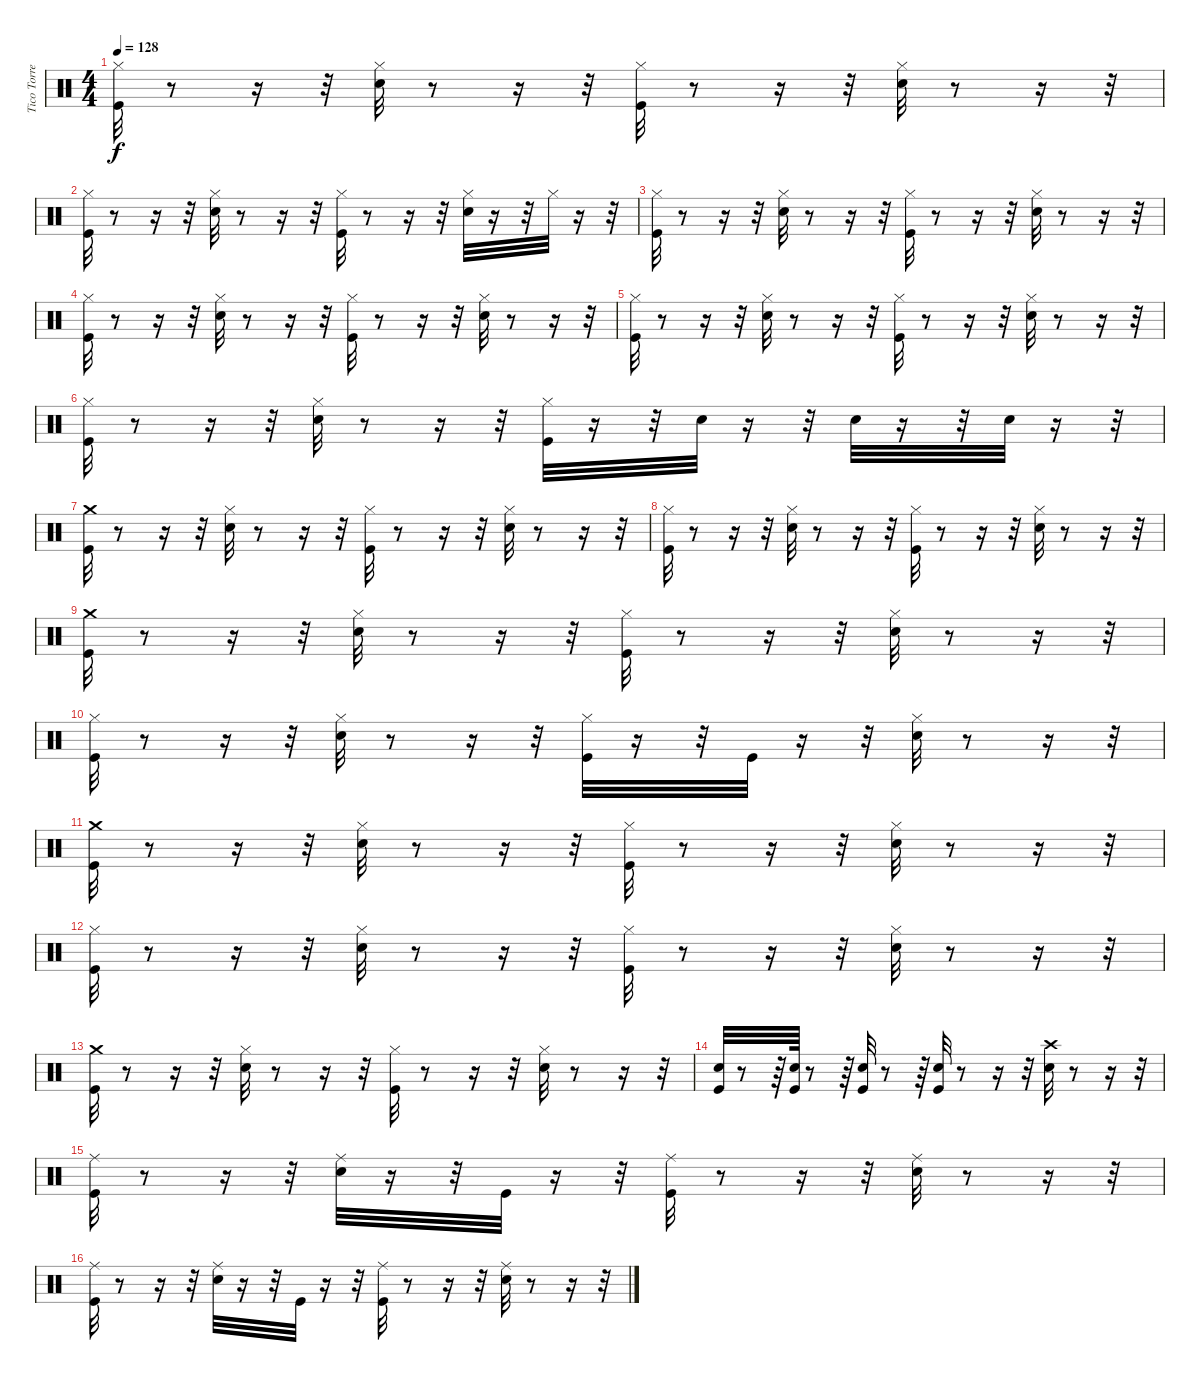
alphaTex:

\track ("Tico Torres" "Tico Torre") {instrument percussion}
\staff {score}
\articulation defaults
\ts (4 4)
\tempo 128
\clef neutral
\ks c
("Kick (hit)" "Hi-Hat (closed)").32{dy f} r.8 r.16 r.32 ("Snare (hit) 2" "Hi-Hat (closed)").32 r.8 r.16 r.32 ("Kick (hit)" "Hi-Hat (closed)").32 r.8 r.16 r.32 ("Snare (hit) 2" "Hi-Hat (closed)").32 r.8 r.16 r.32 |
("Kick (hit)" "Hi-Hat (closed)").32 r.8 r.16 r.32 ("Snare (hit) 2" "Hi-Hat (closed)").32 r.8 r.16 r.32 ("Kick (hit)" "Hi-Hat (closed)").32 r.8 r.16 r.32 ("Snare (hit) 2" "Hi-Hat (closed)").32 r.16 r.32 "Hi-Hat (closed)".32 r.16 r.32 |
("Kick (hit)" "Hi-Hat (closed)").32 r.8 r.16 r.32 ("Snare (hit) 2" "Hi-Hat (closed)").32 r.8 r.16 r.32 ("Kick (hit)" "Hi-Hat (closed)").32 r.8 r.16 r.32 ("Snare (hit) 2" "Hi-Hat (closed)").32 r.8 r.16 r.32 |
("Kick (hit)" "Hi-Hat (closed)").32 r.8 r.16 r.32 ("Snare (hit) 2" "Hi-Hat (closed)").32 r.8 r.16 r.32 ("Kick (hit)" "Hi-Hat (closed)").32 r.8 r.16 r.32 ("Snare (hit) 2" "Hi-Hat (closed)").32 r.8 r.16 r.32 |
("Kick (hit)" "Hi-Hat (closed)").32 r.8 r.16 r.32 ("Snare (hit) 2" "Hi-Hat (closed)").32 r.8 r.16 r.32 ("Kick (hit)" "Hi-Hat (closed)").32 r.8 r.16 r.32 ("Snare (hit) 2" "Hi-Hat (closed)").32 r.8 r.16 r.32 |
("Hi-Hat (closed)" "Kick (hit)").32 r.8 r.16 r.32 ("Hi-Hat (closed)" "Snare (hit) 2").32 r.8 r.16 r.32 ("Hi-Hat (closed)" "Kick (hit)").32 r.16 r.32 "Snare (hit) 2".32 r.16 r.32 "Snare (hit) 2".32 r.16 r.32 "Snare (hit) 2".32 r.16 r.32 |
("Kick (hit)" "Crash medium (hit)").32 r.8 r.16 r.32 ("Hi-Hat (closed)" "Snare (hit) 2").32 r.8 r.16 r.32 ("Kick (hit)" "Hi-Hat (closed)").32 r.8 r.16 r.32 ("Snare (hit) 2" "Hi-Hat (closed)").32 r.8 r.16 r.32 |
("Hi-Hat (closed)" "Kick (hit)").32 r.8 r.16 r.32 ("Hi-Hat (closed)" "Snare (hit) 2").32 r.8 r.16 r.32 ("Hi-Hat (closed)" "Kick (hit)").32 r.8 r.16 r.32 ("Hi-Hat (closed)" "Snare (hit) 2").32 r.8 r.16 r.32 |
("Kick (hit)" "Crash medium (hit)").32 r.8 r.16 r.32 ("Hi-Hat (closed)" "Snare (hit) 2").32 r.8 r.16 r.32 ("Kick (hit)" "Hi-Hat (closed)").32 r.8 r.16 r.32 ("Snare (hit) 2" "Hi-Hat (closed)").32 r.8 r.16 r.32 |
("Hi-Hat (closed)" "Kick (hit)").32 r.8 r.16 r.32 ("Hi-Hat (closed)" "Snare (hit) 2").32 r.8 r.16 r.32 ("Hi-Hat (closed)" "Kick (hit)").32 r.16 r.32 "Kick (hit)".32 r.16 r.32 ("Hi-Hat (closed)" "Snare (hit) 2").32 r.8 r.16 r.32 |
("Kick (hit)" "Crash medium (hit)").32 r.8 r.16 r.32 ("Hi-Hat (closed)" "Snare (hit) 2").32 r.8 r.16 r.32 ("Kick (hit)" "Hi-Hat (closed)").32 r.8 r.16 r.32 ("Snare (hit) 2" "Hi-Hat (closed)").32 r.8 r.16 r.32 |
("Hi-Hat (closed)" "Kick (hit)").32 r.8 r.16 r.32 ("Hi-Hat (closed)" "Snare (hit) 2").32 r.8 r.16 r.32 ("Hi-Hat (closed)" "Kick (hit)").32 r.8 r.16 r.32 ("Hi-Hat (closed)" "Snare (hit) 2").32 r.8 r.16 r.32 |
("Kick (hit)" "Crash medium (hit)").32 r.8 r.16 r.32 ("Hi-Hat (closed)" "Snare (hit) 2").32 r.8 r.16 r.32 ("Kick (hit)" "Hi-Hat (closed)").32 r.8 r.16 r.32 ("Snare (hit) 2" "Hi-Hat (closed)").32 r.8 r.16 r.32 |
("Snare (hit) 2" "Kick (hit)").32 r.8 r.64 ("Snare (hit) 2" "Kick (hit)").64 r.8 r.64 ("Snare (hit) 2" "Kick (hit)").32 r.8 r.64 ("Kick (hit)" "Snare (hit) 2").32 r.8 r.16 r.32 ("Crash high (hit)" "Snare (hit) 2").32 r.8 r.16 r.32 |
("Ride (middle)" "Kick (hit)").32 r.8 r.16 r.32 ("Ride (middle)" "Snare (hit) 2").32 r.16 r.32 "Kick (hit)".32 r.16 r.32 ("Ride (middle)" "Kick (hit)").32 r.8 r.16 r.32 ("Ride (middle)" "Snare (hit) 2").32 r.8 r.16 r.32 |
("Ride (middle)" "Kick (hit)").32 r.8 r.16 r.32 ("Ride (middle)" "Snare (hit) 2").32 r.16 r.32 "Kick (hit)".32 r.16 r.32 ("Ride (middle)" "Kick (hit)").32 r.8 r.16 r.32 ("Ride (middle)" "Snare (hit) 2").32 r.8 r.16 r.32
